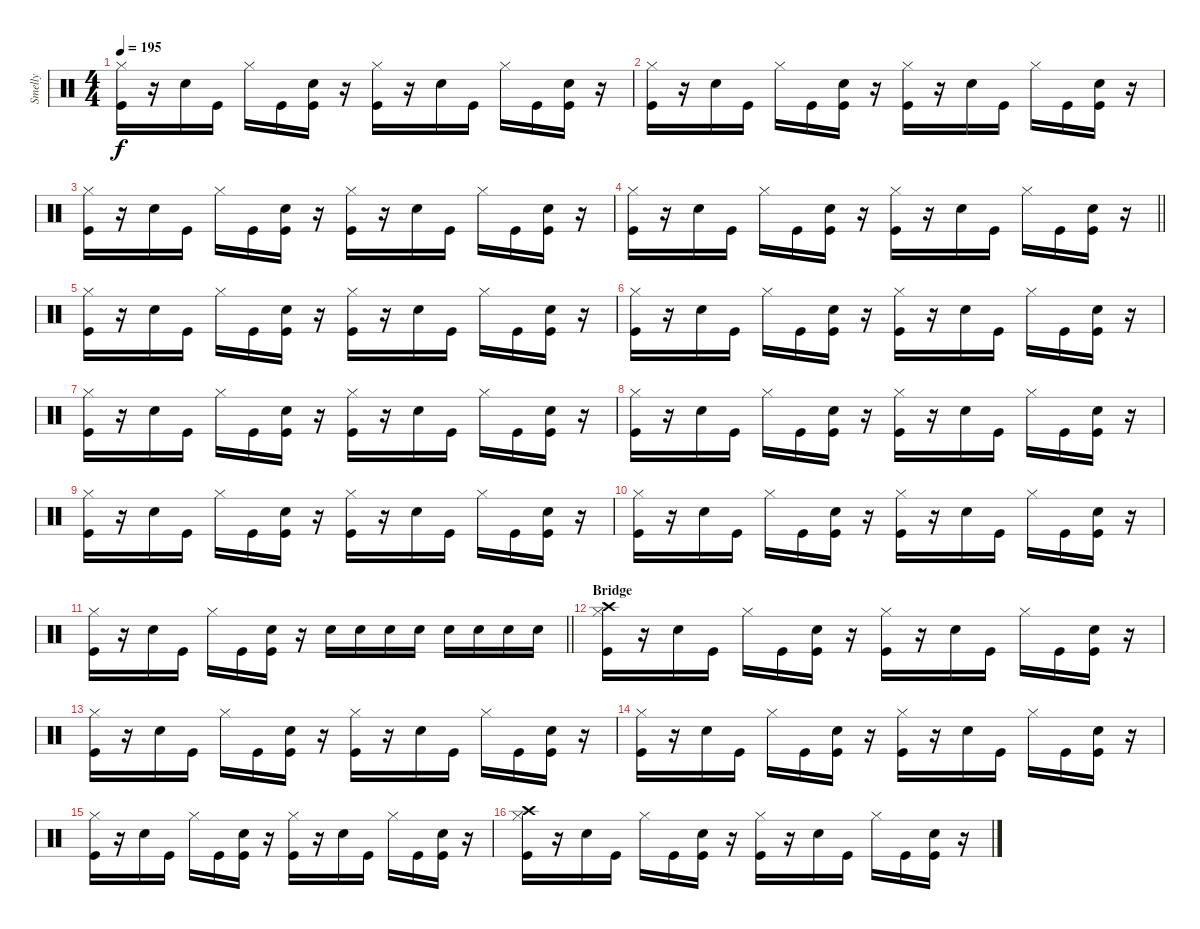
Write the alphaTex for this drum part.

\track ("Smelly" "Smelly") {instrument percussion}
\staff {score}
\articulation defaults
\ts (4 4)
\tempo 195
\clef neutral
\ks c
("Hi-Hat (closed)" "Kick (hit)").16{dy f} r.16 "Snare (hit) 2".16 "Kick (hit)".16 "Hi-Hat (closed)".16 "Kick (hit)".16 ("Snare (hit) 2" "Kick (hit)").16 r.16 ("Hi-Hat (closed)" "Kick (hit)").16 r.16 "Snare (hit) 2".16 "Kick (hit)".16 "Hi-Hat (closed)".16 "Kick (hit)".16 ("Snare (hit) 2" "Kick (hit)").16 r.16 |
("Hi-Hat (closed)" "Kick (hit)").16 r.16 "Snare (hit) 2".16 "Kick (hit)".16 "Hi-Hat (closed)".16 "Kick (hit)".16 ("Snare (hit) 2" "Kick (hit)").16 r.16 ("Hi-Hat (closed)" "Kick (hit)").16 r.16 "Snare (hit) 2".16 "Kick (hit)".16 "Hi-Hat (closed)".16 "Kick (hit)".16 ("Snare (hit) 2" "Kick (hit)").16 r.16 |
("Hi-Hat (closed)" "Kick (hit)").16 r.16 "Snare (hit) 2".16 "Kick (hit)".16 "Hi-Hat (closed)".16 "Kick (hit)".16 ("Snare (hit) 2" "Kick (hit)").16 r.16 ("Hi-Hat (closed)" "Kick (hit)").16 r.16 "Snare (hit) 2".16 "Kick (hit)".16 "Hi-Hat (closed)".16 "Kick (hit)".16 ("Snare (hit) 2" "Kick (hit)").16 r.16 |
\barLineRight lightlight
("Hi-Hat (closed)" "Kick (hit)").16 r.16 "Snare (hit) 2".16 "Kick (hit)".16 "Hi-Hat (closed)".16 "Kick (hit)".16 ("Snare (hit) 2" "Kick (hit)").16 r.16 ("Hi-Hat (closed)" "Kick (hit)").16 r.16 "Snare (hit) 2".16 "Kick (hit)".16 "Hi-Hat (closed)".16 "Kick (hit)".16 ("Snare (hit) 2" "Kick (hit)").16 r.16 |
("Hi-Hat (closed)" "Kick (hit)").16 r.16 "Snare (hit) 2".16 "Kick (hit)".16 "Hi-Hat (closed)".16 "Kick (hit)".16 ("Snare (hit) 2" "Kick (hit)").16 r.16 ("Hi-Hat (closed)" "Kick (hit)").16 r.16 "Snare (hit) 2".16 "Kick (hit)".16 "Hi-Hat (closed)".16 "Kick (hit)".16 ("Snare (hit) 2" "Kick (hit)").16 r.16 |
("Hi-Hat (closed)" "Kick (hit)").16 r.16 "Snare (hit) 2".16 "Kick (hit)".16 "Hi-Hat (closed)".16 "Kick (hit)".16 ("Snare (hit) 2" "Kick (hit)").16 r.16 ("Hi-Hat (closed)" "Kick (hit)").16 r.16 "Snare (hit) 2".16 "Kick (hit)".16 "Hi-Hat (closed)".16 "Kick (hit)".16 ("Snare (hit) 2" "Kick (hit)").16 r.16 |
("Hi-Hat (closed)" "Kick (hit)").16 r.16 "Snare (hit) 2".16 "Kick (hit)".16 "Hi-Hat (closed)".16 "Kick (hit)".16 ("Snare (hit) 2" "Kick (hit)").16 r.16 ("Hi-Hat (closed)" "Kick (hit)").16 r.16 "Snare (hit) 2".16 "Kick (hit)".16 "Hi-Hat (closed)".16 "Kick (hit)".16 ("Snare (hit) 2" "Kick (hit)").16 r.16 |
("Hi-Hat (closed)" "Kick (hit)").16 r.16 "Snare (hit) 2".16 "Kick (hit)".16 "Hi-Hat (closed)".16 "Kick (hit)".16 ("Snare (hit) 2" "Kick (hit)").16 r.16 ("Hi-Hat (closed)" "Kick (hit)").16 r.16 "Snare (hit) 2".16 "Kick (hit)".16 "Hi-Hat (closed)".16 "Kick (hit)".16 ("Snare (hit) 2" "Kick (hit)").16 r.16 |
("Hi-Hat (closed)" "Kick (hit)").16 r.16 "Snare (hit) 2".16 "Kick (hit)".16 "Hi-Hat (closed)".16 "Kick (hit)".16 ("Snare (hit) 2" "Kick (hit)").16 r.16 ("Hi-Hat (closed)" "Kick (hit)").16 r.16 "Snare (hit) 2".16 "Kick (hit)".16 "Hi-Hat (closed)".16 "Kick (hit)".16 ("Snare (hit) 2" "Kick (hit)").16 r.16 |
("Hi-Hat (closed)" "Kick (hit)").16 r.16 "Snare (hit) 2".16 "Kick (hit)".16 "Hi-Hat (closed)".16 "Kick (hit)".16 ("Snare (hit) 2" "Kick (hit)").16 r.16 ("Hi-Hat (closed)" "Kick (hit)").16 r.16 "Snare (hit) 2".16 "Kick (hit)".16 "Hi-Hat (closed)".16 "Kick (hit)".16 ("Snare (hit) 2" "Kick (hit)").16 r.16 |
\barLineRight lightlight
("Hi-Hat (closed)" "Kick (hit)").16 r.16 "Snare (hit) 2".16 "Kick (hit)".16 "Hi-Hat (closed)".16 "Kick (hit)".16 ("Snare (hit) 2" "Kick (hit)").16 r.16 "Snare (hit) 2".16 "Snare (hit) 2".16 "Snare (hit) 2".16 "Snare (hit) 2".16 "Snare (hit) 2".16 "Snare (hit) 2".16 "Snare (hit) 2".16 "Snare (hit) 2".16 |
\section ("" "Bridge")
("Crash high (hit)" "Hi-Hat (closed)" "Kick (hit)").16 r.16 "Snare (hit) 2".16 "Kick (hit)".16 "Hi-Hat (closed)".16 "Kick (hit)".16 ("Snare (hit) 2" "Kick (hit)").16 r.16 ("Hi-Hat (closed)" "Kick (hit)").16 r.16 "Snare (hit) 2".16 "Kick (hit)".16 "Hi-Hat (closed)".16 "Kick (hit)".16 ("Snare (hit) 2" "Kick (hit)").16 r.16 |
("Hi-Hat (closed)" "Kick (hit)").16 r.16 "Snare (hit) 2".16 "Kick (hit)".16 "Hi-Hat (closed)".16 "Kick (hit)".16 ("Snare (hit) 2" "Kick (hit)").16 r.16 ("Hi-Hat (closed)" "Kick (hit)").16 r.16 "Snare (hit) 2".16 "Kick (hit)".16 "Hi-Hat (closed)".16 "Kick (hit)".16 ("Snare (hit) 2" "Kick (hit)").16 r.16 |
("Hi-Hat (closed)" "Kick (hit)").16 r.16 "Snare (hit) 2".16 "Kick (hit)".16 "Hi-Hat (closed)".16 "Kick (hit)".16 ("Snare (hit) 2" "Kick (hit)").16 r.16 ("Hi-Hat (closed)" "Kick (hit)").16 r.16 "Snare (hit) 2".16 "Kick (hit)".16 "Hi-Hat (closed)".16 "Kick (hit)".16 ("Snare (hit) 2" "Kick (hit)").16 r.16 |
("Hi-Hat (closed)" "Kick (hit)").16 r.16 "Snare (hit) 2".16 "Kick (hit)".16 "Hi-Hat (closed)".16 "Kick (hit)".16 ("Snare (hit) 2" "Kick (hit)").16 r.16 ("Hi-Hat (closed)" "Kick (hit)").16 r.16 "Snare (hit) 2".16 "Kick (hit)".16 "Hi-Hat (closed)".16 "Kick (hit)".16 ("Snare (hit) 2" "Kick (hit)").16 r.16 |
("Crash high (hit)" "Hi-Hat (closed)" "Kick (hit)").16 r.16 "Snare (hit) 2".16 "Kick (hit)".16 "Hi-Hat (closed)".16 "Kick (hit)".16 ("Snare (hit) 2" "Kick (hit)").16 r.16 ("Hi-Hat (closed)" "Kick (hit)").16 r.16 "Snare (hit) 2".16 "Kick (hit)".16 "Hi-Hat (closed)".16 "Kick (hit)".16 ("Snare (hit) 2" "Kick (hit)").16 r.16
